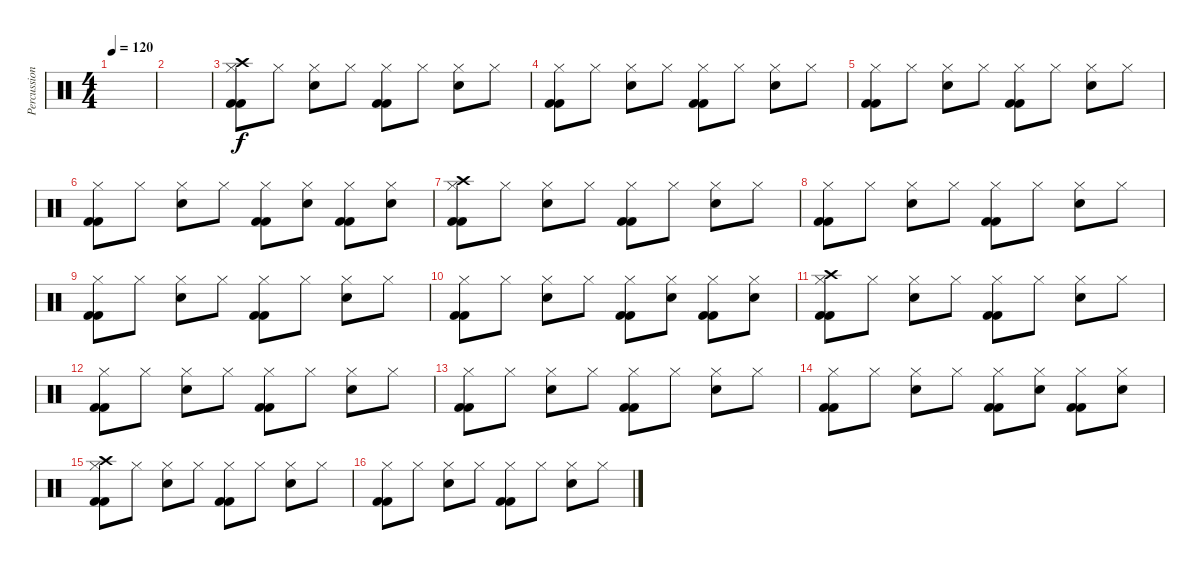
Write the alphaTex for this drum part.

\track ("Percussion" "Percussion") {instrument percussion}
\staff {score}
\articulation defaults
\ts (4 4)
\tempo 120
\clef neutral
\ks c
|
|
("Hi-Hat (closed)" "Crash high (hit)" "Kick (hit) 2" "Kick (hit) 2").8 "Hi-Hat (closed)".8 ("Hi-Hat (closed)" "Electric Snare (hit)").8 "Hi-Hat (closed)".8 ("Hi-Hat (closed)" "Kick (hit) 2" "Kick (hit) 2").8 "Hi-Hat (closed)".8 ("Hi-Hat (closed)" "Electric Snare (hit)").8 "Hi-Hat (closed)".8 |
("Hi-Hat (closed)" "Kick (hit) 2" "Kick (hit) 2").8 "Hi-Hat (closed)".8 ("Hi-Hat (closed)" "Electric Snare (hit)").8 "Hi-Hat (closed)".8 ("Hi-Hat (closed)" "Kick (hit) 2" "Kick (hit) 2").8 "Hi-Hat (closed)".8 ("Hi-Hat (closed)" "Electric Snare (hit)").8 "Hi-Hat (closed)".8 |
("Hi-Hat (closed)" "Kick (hit) 2" "Kick (hit) 2").8 "Hi-Hat (closed)".8 ("Hi-Hat (closed)" "Electric Snare (hit)").8 "Hi-Hat (closed)".8 ("Hi-Hat (closed)" "Kick (hit) 2" "Kick (hit) 2").8 "Hi-Hat (closed)".8 ("Hi-Hat (closed)" "Electric Snare (hit)").8 "Hi-Hat (closed)".8 |
("Hi-Hat (closed)" "Kick (hit) 2" "Kick (hit) 2").8 "Hi-Hat (closed)".8 ("Hi-Hat (closed)" "Electric Snare (hit)").8 "Hi-Hat (closed)".8 ("Hi-Hat (closed)" "Kick (hit) 2" "Kick (hit) 2").8 ("Hi-Hat (closed)" "Electric Snare (hit)").8 ("Hi-Hat (closed)" "Kick (hit) 2" "Kick (hit) 2").8 ("Hi-Hat (closed)" "Electric Snare (hit)").8 |
("Hi-Hat (closed)" "Crash high (hit)" "Kick (hit) 2" "Kick (hit) 2").8 "Hi-Hat (closed)".8 ("Hi-Hat (closed)" "Electric Snare (hit)").8 "Hi-Hat (closed)".8 ("Hi-Hat (closed)" "Kick (hit) 2" "Kick (hit) 2").8 "Hi-Hat (closed)".8 ("Hi-Hat (closed)" "Electric Snare (hit)").8 "Hi-Hat (closed)".8 |
("Hi-Hat (closed)" "Kick (hit) 2" "Kick (hit) 2").8 "Hi-Hat (closed)".8 ("Hi-Hat (closed)" "Electric Snare (hit)").8 "Hi-Hat (closed)".8 ("Hi-Hat (closed)" "Kick (hit) 2" "Kick (hit) 2").8 "Hi-Hat (closed)".8 ("Hi-Hat (closed)" "Electric Snare (hit)").8 "Hi-Hat (closed)".8 |
("Hi-Hat (closed)" "Kick (hit) 2" "Kick (hit) 2").8 "Hi-Hat (closed)".8 ("Hi-Hat (closed)" "Electric Snare (hit)").8 "Hi-Hat (closed)".8 ("Hi-Hat (closed)" "Kick (hit) 2" "Kick (hit) 2").8 "Hi-Hat (closed)".8 ("Hi-Hat (closed)" "Electric Snare (hit)").8 "Hi-Hat (closed)".8 |
("Hi-Hat (closed)" "Kick (hit) 2" "Kick (hit) 2").8 "Hi-Hat (closed)".8 ("Hi-Hat (closed)" "Electric Snare (hit)").8 "Hi-Hat (closed)".8 ("Hi-Hat (closed)" "Kick (hit) 2" "Kick (hit) 2").8 ("Hi-Hat (closed)" "Electric Snare (hit)").8 ("Hi-Hat (closed)" "Kick (hit) 2" "Kick (hit) 2").8 ("Hi-Hat (closed)" "Electric Snare (hit)").8 |
("Hi-Hat (closed)" "Crash high (hit)" "Kick (hit) 2" "Kick (hit) 2").8 "Hi-Hat (closed)".8 ("Hi-Hat (closed)" "Electric Snare (hit)").8 "Hi-Hat (closed)".8 ("Hi-Hat (closed)" "Kick (hit) 2" "Kick (hit) 2").8 "Hi-Hat (closed)".8 ("Hi-Hat (closed)" "Electric Snare (hit)").8 "Hi-Hat (closed)".8 |
("Hi-Hat (closed)" "Kick (hit) 2" "Kick (hit) 2").8 "Hi-Hat (closed)".8 ("Hi-Hat (closed)" "Electric Snare (hit)").8 "Hi-Hat (closed)".8 ("Hi-Hat (closed)" "Kick (hit) 2" "Kick (hit) 2").8 "Hi-Hat (closed)".8 ("Hi-Hat (closed)" "Electric Snare (hit)").8 "Hi-Hat (closed)".8 |
("Hi-Hat (closed)" "Kick (hit) 2" "Kick (hit) 2").8 "Hi-Hat (closed)".8 ("Hi-Hat (closed)" "Electric Snare (hit)").8 "Hi-Hat (closed)".8 ("Hi-Hat (closed)" "Kick (hit) 2" "Kick (hit) 2").8 "Hi-Hat (closed)".8 ("Hi-Hat (closed)" "Electric Snare (hit)").8 "Hi-Hat (closed)".8 |
("Hi-Hat (closed)" "Kick (hit) 2" "Kick (hit) 2").8 "Hi-Hat (closed)".8 ("Hi-Hat (closed)" "Electric Snare (hit)").8 "Hi-Hat (closed)".8 ("Hi-Hat (closed)" "Kick (hit) 2" "Kick (hit) 2").8 ("Hi-Hat (closed)" "Electric Snare (hit)").8 ("Hi-Hat (closed)" "Kick (hit) 2" "Kick (hit) 2").8 ("Hi-Hat (closed)" "Electric Snare (hit)").8 |
("Hi-Hat (closed)" "Crash high (hit)" "Kick (hit) 2" "Kick (hit) 2").8 "Hi-Hat (closed)".8 ("Hi-Hat (closed)" "Electric Snare (hit)").8 "Hi-Hat (closed)".8 ("Hi-Hat (closed)" "Kick (hit) 2" "Kick (hit) 2").8 "Hi-Hat (closed)".8 ("Hi-Hat (closed)" "Electric Snare (hit)").8 "Hi-Hat (closed)".8 |
("Hi-Hat (closed)" "Kick (hit) 2" "Kick (hit) 2").8 "Hi-Hat (closed)".8 ("Hi-Hat (closed)" "Electric Snare (hit)").8 "Hi-Hat (closed)".8 ("Hi-Hat (closed)" "Kick (hit) 2" "Kick (hit) 2").8 "Hi-Hat (closed)".8 ("Hi-Hat (closed)" "Electric Snare (hit)").8 "Hi-Hat (closed)".8
